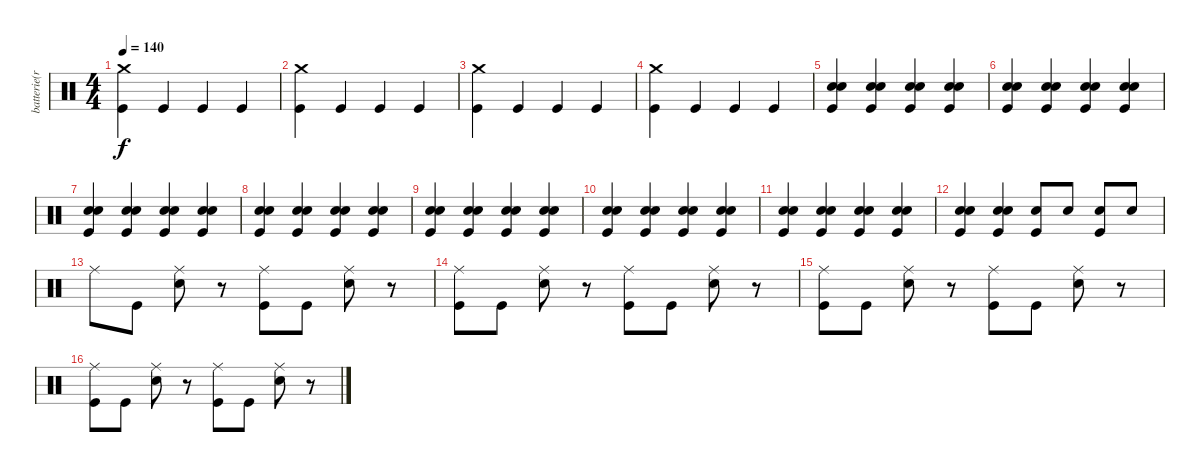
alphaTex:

\track ("batterie(ricky)" "batterie(r") {instrument percussion}
\staff {score}
\articulation defaults
\ts (4 4)
\tempo 140
\clef neutral
\ks c
("Crash medium (hit)" "Kick (hit)").4{dy f} "Kick (hit)".4 "Kick (hit)".4 "Kick (hit)".4 |
("Crash medium (hit)" "Kick (hit)").4 "Kick (hit)".4 "Kick (hit)".4 "Kick (hit)".4 |
("Crash medium (hit)" "Kick (hit)").4 "Kick (hit)".4 "Kick (hit)".4 "Kick (hit)".4 |
("Crash medium (hit)" "Kick (hit)").4 "Kick (hit)".4 "Kick (hit)".4 "Kick (hit)".4 |
("Hand Clap (hit)" "Snare (hit) 2" "Kick (hit)").4 ("Hand Clap (hit)" "Snare (hit) 2" "Kick (hit)").4 ("Hand Clap (hit)" "Snare (hit) 2" "Kick (hit)").4 ("Hand Clap (hit)" "Snare (hit) 2" "Kick (hit)").4 |
("Hand Clap (hit)" "Snare (hit) 2" "Kick (hit)").4 ("Hand Clap (hit)" "Snare (hit) 2" "Kick (hit)").4 ("Hand Clap (hit)" "Snare (hit) 2" "Kick (hit)").4 ("Hand Clap (hit)" "Snare (hit) 2" "Kick (hit)").4 |
("Hand Clap (hit)" "Snare (hit) 2" "Kick (hit)").4 ("Hand Clap (hit)" "Snare (hit) 2" "Kick (hit)").4 ("Hand Clap (hit)" "Snare (hit) 2" "Kick (hit)").4 ("Hand Clap (hit)" "Snare (hit) 2" "Kick (hit)").4 |
("Hand Clap (hit)" "Snare (hit) 2" "Kick (hit)").4 ("Hand Clap (hit)" "Snare (hit) 2" "Kick (hit)").4 ("Hand Clap (hit)" "Snare (hit) 2" "Kick (hit)").4 ("Hand Clap (hit)" "Snare (hit) 2" "Kick (hit)").4 |
("Hand Clap (hit)" "Snare (hit) 2" "Kick (hit)").4 ("Hand Clap (hit)" "Snare (hit) 2" "Kick (hit)").4 ("Hand Clap (hit)" "Snare (hit) 2" "Kick (hit)").4 ("Hand Clap (hit)" "Snare (hit) 2" "Kick (hit)").4 |
("Hand Clap (hit)" "Snare (hit) 2" "Kick (hit)").4 ("Hand Clap (hit)" "Snare (hit) 2" "Kick (hit)").4 ("Hand Clap (hit)" "Snare (hit) 2" "Kick (hit)").4 ("Hand Clap (hit)" "Snare (hit) 2" "Kick (hit)").4 |
("Hand Clap (hit)" "Snare (hit) 2" "Kick (hit)").4 ("Hand Clap (hit)" "Snare (hit) 2" "Kick (hit)").4 ("Hand Clap (hit)" "Snare (hit) 2" "Kick (hit)").4 ("Hand Clap (hit)" "Snare (hit) 2" "Kick (hit)").4 |
("Hand Clap (hit)" "Snare (hit) 2" "Kick (hit)").4 ("Hand Clap (hit)" "Snare (hit) 2" "Kick (hit)").4 ("Snare (hit) 2" "Kick (hit)").8 "Snare (hit) 2".8 ("Snare (hit) 2" "Kick (hit)").8 "Snare (hit) 2".8 |
"Ride (middle)".8 "Kick (hit)".8 ("Ride (middle)" "Snare (hit) 2").8 r.8 ("Ride (middle)" "Kick (hit)").8 "Kick (hit)".8 ("Ride (middle)" "Snare (hit) 2").8 r.8 |
("Ride (middle)" "Kick (hit)").8 "Kick (hit)".8 ("Ride (middle)" "Snare (hit) 2").8 r.8 ("Ride (middle)" "Kick (hit)").8 "Kick (hit)".8 ("Ride (middle)" "Snare (hit) 2").8 r.8 |
("Ride (middle)" "Kick (hit)").8 "Kick (hit)".8 ("Ride (middle)" "Snare (hit) 2").8 r.8 ("Ride (middle)" "Kick (hit)").8 "Kick (hit)".8 ("Ride (middle)" "Snare (hit) 2").8 r.8 |
("Ride (middle)" "Kick (hit)").8 "Kick (hit)".8 ("Ride (middle)" "Snare (hit) 2").8 r.8 ("Ride (middle)" "Kick (hit)").8 "Kick (hit)".8 ("Ride (middle)" "Snare (hit) 2").8 r.8
